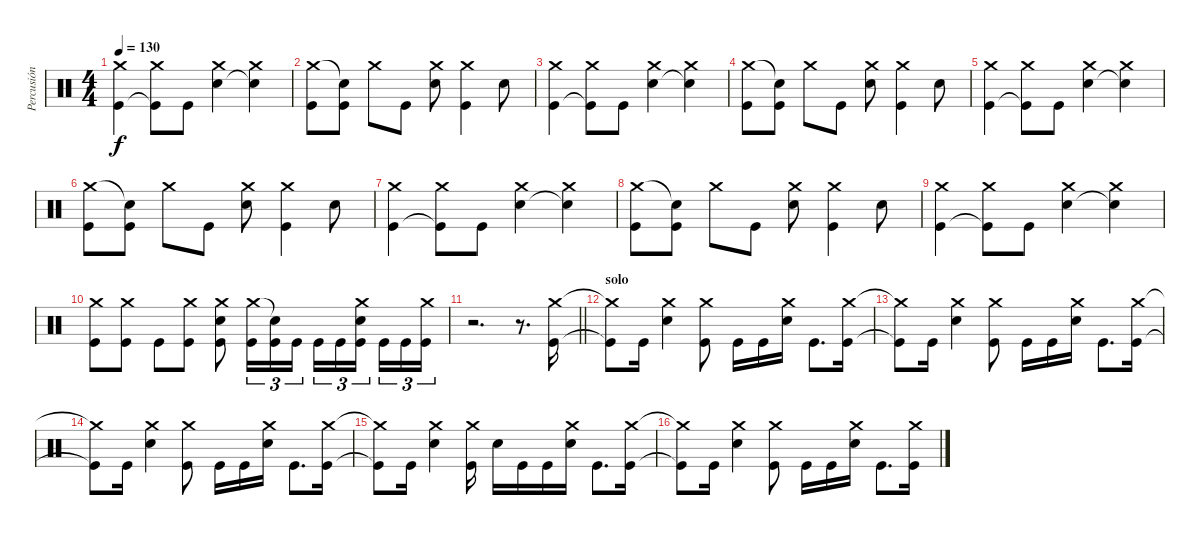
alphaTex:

\track ("Percusión" "Percusión") {instrument percussion}
\staff {score}
\articulation defaults
\ts (4 4)
\tempo 130
\clef neutral
\ks c
("Crash medium (hit)" "Kick (hit)").4{dy f} ("Crash medium (hit)" "Kick (hit)"{t}).8 "Kick (hit)".8 ("Crash medium (hit)" "Electric Snare (hit)").4 ("Crash medium (hit)" "Snare (hit)"{t}).4 |
("Crash medium (hit)" "Kick (hit)").8 ("Snare (hit)"{t} "Kick (hit)").8 "Crash medium (hit)".8 "Kick (hit)".8 ("Crash medium (hit)" "Electric Snare (hit)").8 ("Crash medium (hit)" "Kick (hit)").4 "Electric Snare (hit)".8 |
("Crash medium (hit)" "Kick (hit)").4 ("Crash medium (hit)" "Kick (hit)"{t}).8 "Kick (hit)".8 ("Crash medium (hit)" "Electric Snare (hit)").4 ("Crash medium (hit)" "Snare (hit)"{t}).4 |
("Crash medium (hit)" "Kick (hit)").8 ("Snare (hit)"{t} "Kick (hit)").8 "Crash medium (hit)".8 "Kick (hit)".8 ("Crash medium (hit)" "Electric Snare (hit)").8 ("Crash medium (hit)" "Kick (hit)").4 "Electric Snare (hit)".8 |
("Crash medium (hit)" "Kick (hit)").4 ("Crash medium (hit)" "Kick (hit)"{t}).8 "Kick (hit)".8 ("Crash medium (hit)" "Electric Snare (hit)").4 ("Crash medium (hit)" "Snare (hit)"{t}).4 |
("Crash medium (hit)" "Kick (hit)").8 ("Snare (hit)"{t} "Kick (hit)").8 "Crash medium (hit)".8 "Kick (hit)".8 ("Crash medium (hit)" "Electric Snare (hit)").8 ("Crash medium (hit)" "Kick (hit)").4 "Electric Snare (hit)".8 |
("Crash medium (hit)" "Kick (hit)").4 ("Crash medium (hit)" "Kick (hit)"{t}).8 "Kick (hit)".8 ("Crash medium (hit)" "Electric Snare (hit)").4 ("Crash medium (hit)" "Snare (hit)"{t}).4 |
("Crash medium (hit)" "Kick (hit)").8 ("Snare (hit)"{t} "Kick (hit)").8 "Crash medium (hit)".8 "Kick (hit)".8 ("Crash medium (hit)" "Electric Snare (hit)").8 ("Crash medium (hit)" "Kick (hit)").4 "Electric Snare (hit)".8 |
("Crash medium (hit)" "Kick (hit)").4 ("Crash medium (hit)" "Kick (hit)"{t}).8 "Kick (hit)".8 ("Crash medium (hit)" "Electric Snare (hit)").4 ("Crash medium (hit)" "Snare (hit)"{t}).4 |
("Crash medium (hit)" "Kick (hit)").8 ("Crash medium (hit)" "Kick (hit)").8 "Kick (hit)".8 ("Crash medium (hit)" "Kick (hit)").8 ("Crash medium (hit)" "Electric Snare (hit)" "Kick (hit)").8 ("Crash medium (hit)" "Kick (hit)").16{tu (3 2)} ("Snare (hit)"{t} "Kick (hit)").16{tu (3 2)} "Kick (hit)".16{tu (3 2)} "Kick (hit)".16{tu (3 2)} "Kick (hit)".16{tu (3 2)} ("Crash medium (hit)" "Electric Snare (hit)" "Kick (hit)").16{tu (3 2) beam splitsecondary} "Kick (hit)".16{tu (3 2)} "Kick (hit)".16{tu (3 2)} ("Crash medium (hit)" "Kick (hit)").16{tu (3 2)} |
\barLineRight lightlight
r.2{d volume 11} r.8{d} ("Crash medium (hit)" "Kick (hit)").16 |
\section ("" "solo")
("Crash medium (hit)"{t} "Kick (hit)"{t}).8 "Kick (hit)".16 ("Crash medium (hit)" "Electric Snare (hit)").4 ("Crash medium (hit)" "Kick (hit)").8 "Kick (hit)".16 "Kick (hit)".16 ("Crash medium (hit)" "Electric Snare (hit)").16 "Kick (hit)".8{d} ("Crash medium (hit)" "Kick (hit)").16 |
("Crash medium (hit)"{t} "Kick (hit)"{t}).8 "Kick (hit)".16 ("Crash medium (hit)" "Electric Snare (hit)").4 ("Crash medium (hit)" "Kick (hit)").8 "Kick (hit)".16 "Kick (hit)".16 ("Crash medium (hit)" "Electric Snare (hit)").16 "Kick (hit)".8{d} ("Crash medium (hit)" "Kick (hit)").16 |
("Crash medium (hit)"{t} "Kick (hit)"{t}).8 "Kick (hit)".16 ("Crash medium (hit)" "Electric Snare (hit)").4 ("Crash medium (hit)" "Kick (hit)").8 "Kick (hit)".16 "Kick (hit)".16 ("Crash medium (hit)" "Electric Snare (hit)").16 "Kick (hit)".8{d} ("Crash medium (hit)" "Kick (hit)").16 |
("Crash medium (hit)"{t} "Kick (hit)"{t}).8 "Kick (hit)".16 ("Crash medium (hit)" "Electric Snare (hit)").4 ("Crash medium (hit)" "Kick (hit)").16 "Electric Snare (hit)".16 "Kick (hit)".16 "Kick (hit)".16 ("Crash medium (hit)" "Electric Snare (hit)").16 "Kick (hit)".8{d} ("Crash medium (hit)" "Kick (hit)").16 |
("Crash medium (hit)"{t} "Kick (hit)"{t}).8 "Kick (hit)".16 ("Crash medium (hit)" "Electric Snare (hit)").4 ("Crash medium (hit)" "Kick (hit)").8 "Kick (hit)".16 "Kick (hit)".16 ("Crash medium (hit)" "Electric Snare (hit)").16 "Kick (hit)".8{d} ("Crash medium (hit)" "Kick (hit)").16
